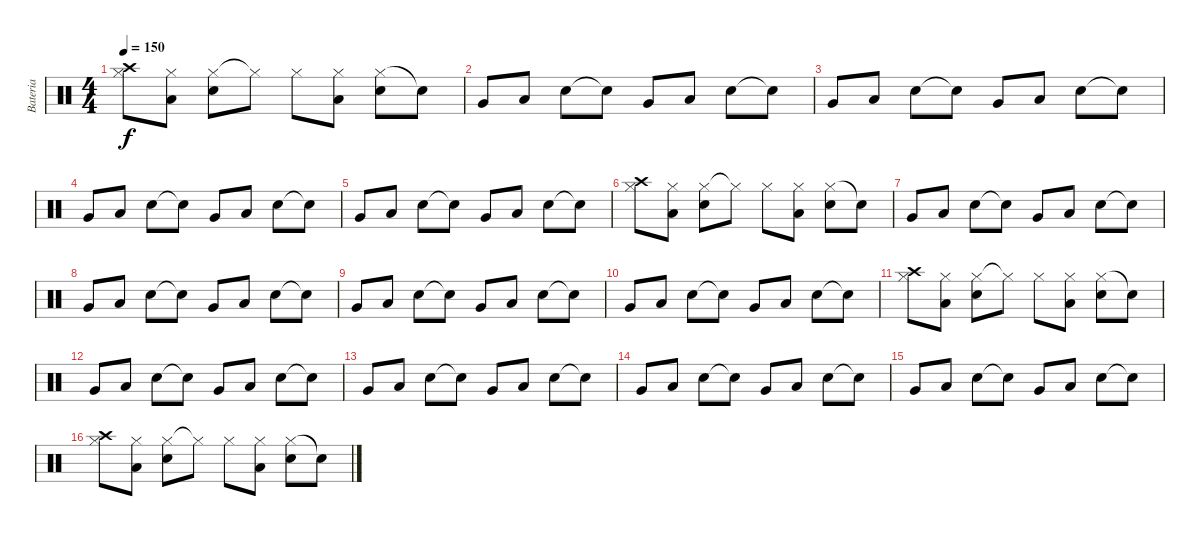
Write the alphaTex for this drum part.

\track ("Bateria" "Bateria") {instrument percussion}
\staff {score}
\articulation defaults
\ts (4 4)
\tempo 150
\clef neutral
\ks c
("Hi-Hat (closed)" "Crash high (hit)").8{dy f} ("Low Floor Tom (hit)" "Hi-Hat (closed)").8 ("Hi-Hat (closed)" "Snare (hit) 2").8 "Hi-Hat (closed)"{t}.8 "Hi-Hat (closed)".8 ("Low Floor Tom (hit)" "Hi-Hat (closed)").8 ("Hi-Hat (closed)" "Snare (hit) 2").8 "Snare (hit)"{t}.8 |
"Very Low Tom (hit)".8 "Low Floor Tom (hit)".8 "Snare (hit) 2".8 "Snare (hit)"{t}.8 "Very Low Tom (hit)".8 "Low Floor Tom (hit)".8 "Snare (hit) 2".8 "Snare (hit)"{t}.8 |
"Very Low Tom (hit)".8 "Low Floor Tom (hit)".8 "Snare (hit) 2".8 "Snare (hit)"{t}.8 "Very Low Tom (hit)".8 "Low Floor Tom (hit)".8 "Snare (hit) 2".8 "Snare (hit)"{t}.8 |
"Very Low Tom (hit)".8 "Low Floor Tom (hit)".8 "Snare (hit) 2".8 "Snare (hit)"{t}.8 "Very Low Tom (hit)".8 "Low Floor Tom (hit)".8 "Snare (hit) 2".8 "Snare (hit)"{t}.8 |
"Very Low Tom (hit)".8 "Low Floor Tom (hit)".8 "Snare (hit) 2".8 "Snare (hit)"{t}.8 "Very Low Tom (hit)".8 "Low Floor Tom (hit)".8 "Snare (hit) 2".8 "Snare (hit)"{t}.8 |
("Hi-Hat (closed)" "Crash high (hit)").8 ("Low Floor Tom (hit)" "Hi-Hat (closed)").8 ("Hi-Hat (closed)" "Snare (hit) 2").8 "Hi-Hat (closed)"{t}.8 "Hi-Hat (closed)".8 ("Low Floor Tom (hit)" "Hi-Hat (closed)").8 ("Hi-Hat (closed)" "Snare (hit) 2").8 "Snare (hit)"{t}.8 |
"Very Low Tom (hit)".8 "Low Floor Tom (hit)".8 "Snare (hit) 2".8 "Snare (hit)"{t}.8 "Very Low Tom (hit)".8 "Low Floor Tom (hit)".8 "Snare (hit) 2".8 "Snare (hit)"{t}.8 |
"Very Low Tom (hit)".8 "Low Floor Tom (hit)".8 "Snare (hit) 2".8 "Snare (hit)"{t}.8 "Very Low Tom (hit)".8 "Low Floor Tom (hit)".8 "Snare (hit) 2".8 "Snare (hit)"{t}.8 |
"Very Low Tom (hit)".8 "Low Floor Tom (hit)".8 "Snare (hit) 2".8 "Snare (hit)"{t}.8 "Very Low Tom (hit)".8 "Low Floor Tom (hit)".8 "Snare (hit) 2".8 "Snare (hit)"{t}.8 |
"Very Low Tom (hit)".8 "Low Floor Tom (hit)".8 "Snare (hit) 2".8 "Snare (hit)"{t}.8 "Very Low Tom (hit)".8 "Low Floor Tom (hit)".8 "Snare (hit) 2".8 "Snare (hit)"{t}.8 |
("Hi-Hat (closed)" "Crash high (hit)").8 ("Low Floor Tom (hit)" "Hi-Hat (closed)").8 ("Hi-Hat (closed)" "Snare (hit) 2").8 "Hi-Hat (closed)"{t}.8 "Hi-Hat (closed)".8 ("Low Floor Tom (hit)" "Hi-Hat (closed)").8 ("Hi-Hat (closed)" "Snare (hit) 2").8 "Snare (hit)"{t}.8 |
"Very Low Tom (hit)".8 "Low Floor Tom (hit)".8 "Snare (hit) 2".8 "Snare (hit)"{t}.8 "Very Low Tom (hit)".8 "Low Floor Tom (hit)".8 "Snare (hit) 2".8 "Snare (hit)"{t}.8 |
"Very Low Tom (hit)".8 "Low Floor Tom (hit)".8 "Snare (hit) 2".8 "Snare (hit)"{t}.8 "Very Low Tom (hit)".8 "Low Floor Tom (hit)".8 "Snare (hit) 2".8 "Snare (hit)"{t}.8 |
"Very Low Tom (hit)".8 "Low Floor Tom (hit)".8 "Snare (hit) 2".8 "Snare (hit)"{t}.8 "Very Low Tom (hit)".8 "Low Floor Tom (hit)".8 "Snare (hit) 2".8 "Snare (hit)"{t}.8 |
"Very Low Tom (hit)".8 "Low Floor Tom (hit)".8 "Snare (hit) 2".8 "Snare (hit)"{t}.8 "Very Low Tom (hit)".8 "Low Floor Tom (hit)".8 "Snare (hit) 2".8 "Snare (hit)"{t}.8 |
("Hi-Hat (closed)" "Crash high (hit)").8 ("Low Floor Tom (hit)" "Hi-Hat (closed)").8 ("Hi-Hat (closed)" "Snare (hit) 2").8 "Hi-Hat (closed)"{t}.8 "Hi-Hat (closed)".8 ("Low Floor Tom (hit)" "Hi-Hat (closed)").8 ("Hi-Hat (closed)" "Snare (hit) 2").8 "Snare (hit)"{t}.8
